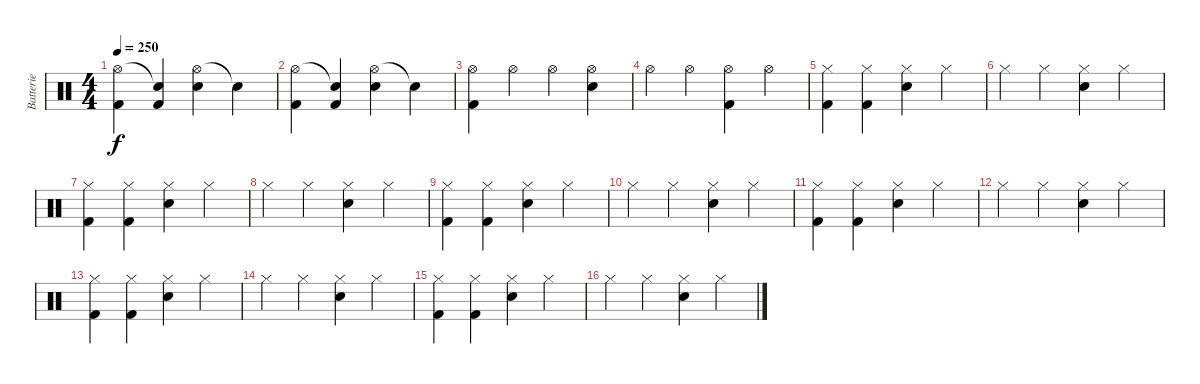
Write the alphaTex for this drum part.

\track ("Batterie" "Batterie") {instrument percussion}
\staff {score}
\articulation defaults
\ts (4 4)
\tempo 250
\clef neutral
\ks c
("Hi-Hat (open)" "Kick (hit) 2").4{dy f} ("Snare (hit)"{t} "Kick (hit) 2").4 ("Hi-Hat (open)" "Electric Snare (hit)").4 "Snare (hit)"{t}.4 |
("Hi-Hat (open)" "Kick (hit) 2").4 ("Snare (hit)"{t} "Kick (hit) 2").4 ("Hi-Hat (open)" "Electric Snare (hit)").4 "Snare (hit)"{t}.4 |
("Hi-Hat (open)" "Kick (hit) 2").4 "Hi-Hat (open)".4 "Hi-Hat (open)".4 ("Hi-Hat (open)" "Electric Snare (hit)").4 |
"Hi-Hat (open)".4 "Hi-Hat (open)".4 ("Hi-Hat (open)" "Kick (hit) 2").4 "Hi-Hat (open)".4 |
("Hi-Hat (closed)" "Kick (hit) 2").4 ("Hi-Hat (closed)" "Kick (hit) 2").4 ("Hi-Hat (closed)" "Electric Snare (hit)").4 "Hi-Hat (closed)".4 |
"Hi-Hat (closed)".4 "Hi-Hat (closed)".4 ("Hi-Hat (closed)" "Electric Snare (hit)").4 "Hi-Hat (closed)".4 |
("Hi-Hat (closed)" "Kick (hit) 2").4 ("Hi-Hat (closed)" "Kick (hit) 2").4 ("Hi-Hat (closed)" "Electric Snare (hit)").4 "Hi-Hat (closed)".4 |
"Hi-Hat (closed)".4 "Hi-Hat (closed)".4 ("Hi-Hat (closed)" "Electric Snare (hit)").4 "Hi-Hat (closed)".4 |
("Hi-Hat (closed)" "Kick (hit) 2").4 ("Hi-Hat (closed)" "Kick (hit) 2").4 ("Hi-Hat (closed)" "Electric Snare (hit)").4 "Hi-Hat (closed)".4 |
"Hi-Hat (closed)".4 "Hi-Hat (closed)".4 ("Hi-Hat (closed)" "Electric Snare (hit)").4 "Hi-Hat (closed)".4 |
("Hi-Hat (closed)" "Kick (hit) 2").4 ("Hi-Hat (closed)" "Kick (hit) 2").4 ("Hi-Hat (closed)" "Electric Snare (hit)").4 "Hi-Hat (closed)".4 |
"Hi-Hat (closed)".4 "Hi-Hat (closed)".4 ("Hi-Hat (closed)" "Electric Snare (hit)").4 "Hi-Hat (closed)".4 |
("Hi-Hat (closed)" "Kick (hit) 2").4 ("Hi-Hat (closed)" "Kick (hit) 2").4 ("Hi-Hat (closed)" "Electric Snare (hit)").4 "Hi-Hat (closed)".4 |
"Hi-Hat (closed)".4 "Hi-Hat (closed)".4 ("Hi-Hat (closed)" "Electric Snare (hit)").4 "Hi-Hat (closed)".4 |
("Hi-Hat (closed)" "Kick (hit) 2").4 ("Hi-Hat (closed)" "Kick (hit) 2").4 ("Hi-Hat (closed)" "Electric Snare (hit)").4 "Hi-Hat (closed)".4 |
"Hi-Hat (closed)".4 "Hi-Hat (closed)".4 ("Hi-Hat (closed)" "Electric Snare (hit)").4 "Hi-Hat (closed)".4
